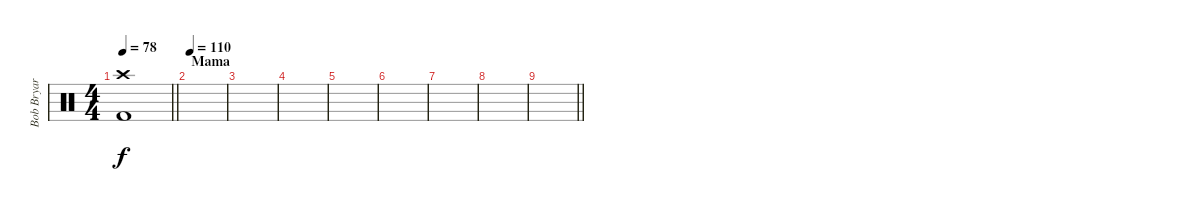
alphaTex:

\track ("Bob Bryar [Drums]" "Bob Bryar ") {instrument percussion}
\staff {score}
\articulation defaults
\ts (4 4)
\tempo 78
\clef neutral
\barLineRight lightlight
\ks c
("Crash high (hit)" "Kick (hit) 2").1{dy f} |
\section ("" "Mama")
\tempo 110
|
|
|
|
|
|
|
\barLineRight lightlight
